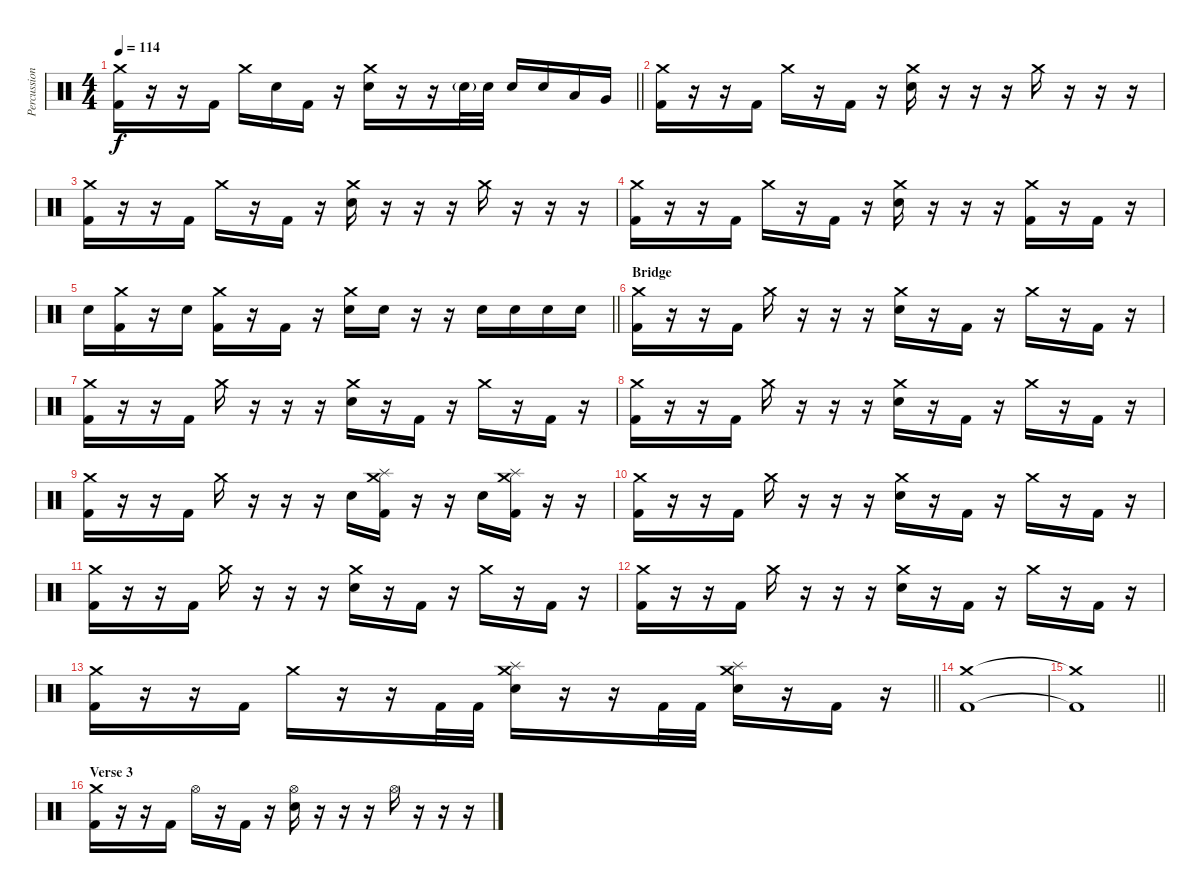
\track ("Percussion" "Percussion") {instrument percussion}
\staff {score}
\articulation defaults
\ts (4 4)
\tempo 114
\clef neutral
\barLineRight lightlight
\ks c
("Crash medium (hit)" "Kick (hit) 2").16{dy f} r.16 r.16 "Kick (hit) 2".16 "Crash medium (hit)".16 "Electric Snare (hit)".16 "Kick (hit) 2".16 r.16 ("Crash medium (hit)" "Electric Snare (hit)").16 r.16 r.16 "Electric Snare (hit)"{g}.32 "Electric Snare (hit)".32 "Electric Snare (hit)".16 "Electric Snare (hit)".16 "Low Tom (hit)".16 "Very Low Tom (hit)".16 |
("Crash medium (hit)" "Kick (hit) 2").16 r.16 r.16 "Kick (hit) 2".16 "Crash medium (hit)".16 r.16 "Kick (hit) 2".16 r.16 ("Crash medium (hit)" "Electric Snare (hit)").16 r.16 r.16 r.16 "Crash medium (hit)".16 r.16 r.16 r.16 |
("Crash medium (hit)" "Kick (hit) 2").16 r.16 r.16 "Kick (hit) 2".16 "Crash medium (hit)".16 r.16 "Kick (hit) 2".16 r.16 ("Crash medium (hit)" "Electric Snare (hit)").16 r.16 r.16 r.16 "Crash medium (hit)".16 r.16 r.16 r.16 |
("Crash medium (hit)" "Kick (hit) 2").16 r.16 r.16 "Kick (hit) 2".16 "Crash medium (hit)".16 r.16 "Kick (hit) 2".16 r.16 ("Crash medium (hit)" "Electric Snare (hit)").16 r.16 r.16 r.16 ("Crash medium (hit)" "Kick (hit) 2").16 r.16 "Kick (hit) 2".16 r.16 |
\barLineRight lightlight "Electric Snare (hit)".16
("Crash medium (hit)" "Kick (hit) 2").16 r.16 "Electric Snare (hit)".16 ("Crash medium (hit)" "Kick (hit) 2").16 r.16 "Kick (hit) 2".16 r.16 ("Crash medium (hit)" "Electric Snare (hit)").16 "Electric Snare (hit)".16 r.16 r.16 "Electric Snare (hit)".16 "Electric Snare (hit)".16 "Electric Snare (hit)".16 "Electric Snare (hit)".16 |
\section ("" "Bridge")
("Crash medium (hit)" "Kick (hit) 2").16 r.16 r.16 "Kick (hit) 2".16 "Crash medium (hit)".16 r.16 r.16 r.16 ("Crash medium (hit)" "Electric Snare (hit)").16 r.16 "Kick (hit) 2".16 r.16 "Crash medium (hit)".16 r.16 "Kick (hit) 2".16 r.16 |
("Crash medium (hit)" "Kick (hit) 2").16 r.16 r.16 "Kick (hit) 2".16 "Crash medium (hit)".16 r.16 r.16 r.16 ("Crash medium (hit)" "Electric Snare (hit)").16 r.16 "Kick (hit) 2".16 r.16 "Crash medium (hit)".16 r.16 "Kick (hit) 2".16 r.16 |
("Crash medium (hit)" "Kick (hit) 2").16 r.16 r.16 "Kick (hit) 2".16 "Crash medium (hit)".16 r.16 r.16 r.16 ("Crash medium (hit)" "Electric Snare (hit)").16 r.16 "Kick (hit) 2".16 r.16 "Crash medium (hit)".16 r.16 "Kick (hit) 2".16 r.16 |
("Crash medium (hit)" "Kick (hit) 2").16 r.16 r.16 "Kick (hit) 2".16 "Crash medium (hit)".16 r.16 r.16 r.16 "Electric Snare (hit)".16 ("Splash (hit)" "Crash medium (hit)" "Kick (hit) 2").16 r.16 r.16 "Electric Snare (hit)".16 ("Splash (hit)" "Crash medium (hit)" "Kick (hit) 2").16 r.16 r.16 |
("Crash medium (hit)" "Kick (hit) 2").16 r.16 r.16 "Kick (hit) 2".16 "Crash medium (hit)".16 r.16 r.16 r.16 ("Crash medium (hit)" "Electric Snare (hit)").16 r.16 "Kick (hit) 2".16 r.16 "Crash medium (hit)".16 r.16 "Kick (hit) 2".16 r.16 |
("Crash medium (hit)" "Kick (hit) 2").16 r.16 r.16 "Kick (hit) 2".16 "Crash medium (hit)".16 r.16 r.16 r.16 ("Crash medium (hit)" "Electric Snare (hit)").16 r.16 "Kick (hit) 2".16 r.16 "Crash medium (hit)".16 r.16 "Kick (hit) 2".16 r.16 |
("Crash medium (hit)" "Kick (hit) 2").16 r.16 r.16 "Kick (hit) 2".16 "Crash medium (hit)".16 r.16 r.16 r.16 ("Crash medium (hit)" "Electric Snare (hit)").16 r.16 "Kick (hit) 2".16 r.16 "Crash medium (hit)".16 r.16 "Kick (hit) 2".16 r.16 |
\barLineRight lightlight
("Crash medium (hit)" "Kick (hit) 2").16 r.16 r.16 "Kick (hit) 2".16 "Crash medium (hit)".16 r.16 r.16 "Kick (hit) 2".32 "Kick (hit) 2".32 ("Splash (hit)" "Crash medium (hit)" "Electric Snare (hit)").16 r.16 r.16 "Kick (hit) 2".32 "Kick (hit) 2".32 ("Splash (hit)" "Crash medium (hit)" "Electric Snare (hit)").16 r.16 "Kick (hit) 2".16 r.16 |
\section ("" "")
("Crash medium (hit)" "Kick (hit) 2").1 |
\barLineRight lightlight
("Crash medium (hit)"{t} "Kick (hit) 2"{t}).1 |
\section ("" "Verse 3")
("Crash medium (hit)" "Kick (hit) 2").16 r.16 r.16 "Kick (hit) 2".16 "Hi-Hat (open)".16 r.16 "Kick (hit) 2".16 r.16 ("Hi-Hat (open)" "Electric Snare (hit)").16 r.16 r.16 r.16 "Hi-Hat (open)".16 r.16 r.16 r.16
